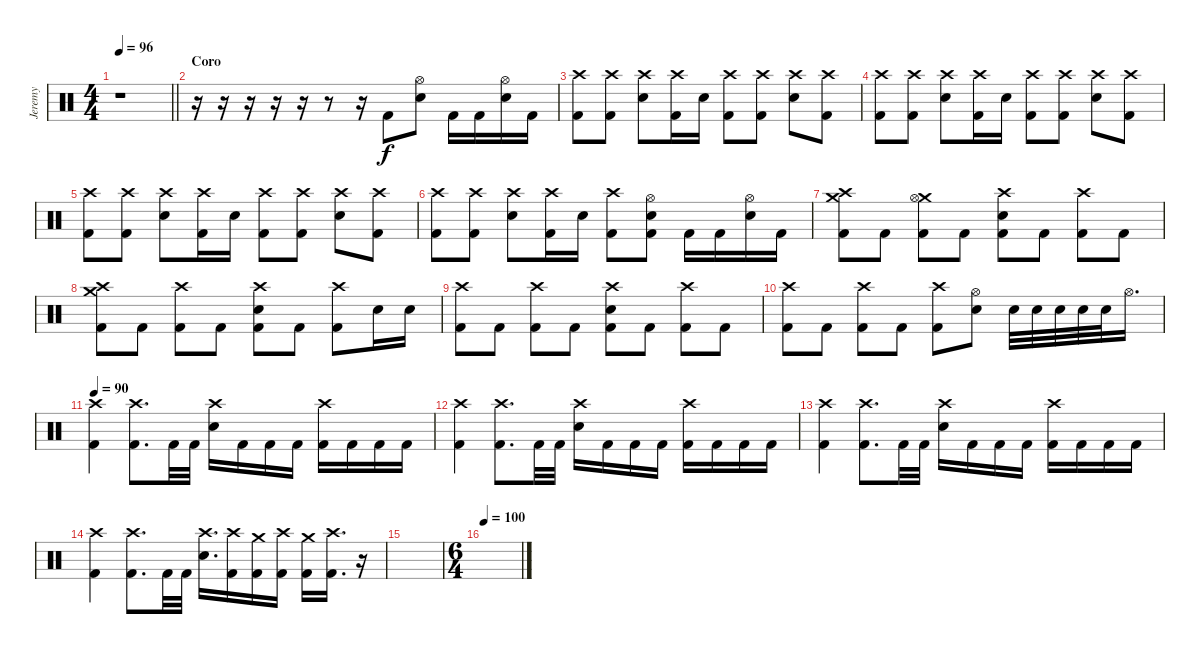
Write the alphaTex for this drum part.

\track ("Jeremy" "Jeremy") {instrument percussion}
\staff {score}
\articulation defaults
\ts (4 4)
\tempo 96
\clef neutral
\barLineRight lightlight
\ks c
r.1{dy f} |
\section ("" "Coro")
r.16 r.16 r.16 r.16 r.16 r.8 r.16 "Kick (hit) 2".8 ("Hi-Hat (open)" "Snare (hit) 2").8 "Kick (hit) 2".16 "Kick (hit) 2".16 ("Hi-Hat (open)" "Snare (hit) 2").16 "Kick (hit) 2".16 |
("Crash high (hit)" "Kick (hit) 2").8 ("Crash high (hit)" "Kick (hit) 2").8 ("Crash high (hit)" "Snare (hit) 2").8 ("Crash high (hit)" "Kick (hit) 2").16 "Snare (hit) 2".16 ("Crash high (hit)" "Kick (hit) 2").8 ("Crash high (hit)" "Kick (hit) 2").8 ("Crash high (hit)" "Snare (hit) 2").8 ("Crash high (hit)" "Kick (hit) 2").8 |
("Crash high (hit)" "Kick (hit) 2").8 ("Crash high (hit)" "Kick (hit) 2").8 ("Crash high (hit)" "Snare (hit) 2").8 ("Crash high (hit)" "Kick (hit) 2").16 "Snare (hit) 2".16 ("Crash high (hit)" "Kick (hit) 2").8 ("Crash high (hit)" "Kick (hit) 2").8 ("Crash high (hit)" "Snare (hit) 2").8 ("Crash high (hit)" "Kick (hit) 2").8 |
("Crash high (hit)" "Kick (hit) 2").8 ("Crash high (hit)" "Kick (hit) 2").8 ("Crash high (hit)" "Snare (hit) 2").8 ("Crash high (hit)" "Kick (hit) 2").16 "Snare (hit) 2".16 ("Crash high (hit)" "Kick (hit) 2").8 ("Crash high (hit)" "Kick (hit) 2").8 ("Crash high (hit)" "Snare (hit) 2").8 ("Crash high (hit)" "Kick (hit) 2").8 |
("Crash high (hit)" "Kick (hit) 2").8 ("Crash high (hit)" "Kick (hit) 2").8 ("Crash high (hit)" "Snare (hit) 2").8 ("Crash high (hit)" "Kick (hit) 2").16 "Snare (hit) 2".16 ("Crash high (hit)" "Kick (hit) 2").8 ("Hi-Hat (open)" "Snare (hit) 2" "Kick (hit) 2").8 "Kick (hit) 2".16 "Kick (hit) 2".16 ("Hi-Hat (open)" "Snare (hit) 2").16 "Kick (hit) 2".16 |
("Crash high (hit)" "Crash medium (hit)" "Kick (hit) 2").8 "Kick (hit) 2".8 ("Crash medium (hit)" "Hi-Hat (open)" "Kick (hit) 2").8 "Kick (hit) 2".8 ("Crash high (hit)" "Snare (hit) 2" "Kick (hit) 2").8 "Kick (hit) 2".8 ("Crash high (hit)" "Kick (hit) 2").8 "Kick (hit) 2".8 |
("Crash high (hit)" "Crash medium (hit)" "Kick (hit) 2").8 "Kick (hit) 2".8 ("Crash high (hit)" "Kick (hit) 2").8 "Kick (hit) 2".8 ("Crash high (hit)" "Snare (hit) 2" "Kick (hit) 2").8 "Kick (hit) 2".8 ("Crash high (hit)" "Kick (hit) 2").8 "Snare (hit) 2".16 "Snare (hit) 2".16 |
("Crash high (hit)" "Kick (hit) 2").8 "Kick (hit) 2".8 ("Crash high (hit)" "Kick (hit) 2").8 "Kick (hit) 2".8 ("Crash high (hit)" "Snare (hit) 2" "Kick (hit) 2").8 "Kick (hit) 2".8 ("Crash high (hit)" "Kick (hit) 2").8 "Kick (hit) 2".8 |
("Crash high (hit)" "Kick (hit) 2").8 "Kick (hit) 2".8 ("Crash high (hit)" "Kick (hit) 2").8 "Kick (hit) 2".8 ("Crash high (hit)" "Kick (hit) 2").8 ("Hi-Hat (open)" "Snare (hit) 2").8 "Snare (hit) 2".32 "Snare (hit) 2".32 "Snare (hit) 2".32 "Snare (hit) 2".32 "Snare (hit) 2".32 "Hi-Hat (open)".16{d} |
\tempo 90
("Crash high (hit)" "Kick (hit) 2").4 ("Crash high (hit)" "Kick (hit) 2").8{d} "Kick (hit) 2".32 "Kick (hit) 2".32 ("Crash high (hit)" "Snare (hit) 2").16 "Kick (hit) 2".16 "Kick (hit) 2".16 "Kick (hit) 2".16 ("Crash high (hit)" "Kick (hit) 2").16 "Kick (hit) 2".16 "Kick (hit) 2".16 "Kick (hit) 2".16 |
("Crash high (hit)" "Kick (hit) 2").4 ("Crash high (hit)" "Kick (hit) 2").8{d} "Kick (hit) 2".32 "Kick (hit) 2".32 ("Crash high (hit)" "Snare (hit) 2").16 "Kick (hit) 2".16 "Kick (hit) 2".16 "Kick (hit) 2".16 ("Crash high (hit)" "Kick (hit) 2").16 "Kick (hit) 2".16 "Kick (hit) 2".16 "Kick (hit) 2".16 |
("Crash high (hit)" "Kick (hit) 2").4 ("Crash high (hit)" "Kick (hit) 2").8{d} "Kick (hit) 2".32 "Kick (hit) 2".32 ("Crash high (hit)" "Snare (hit) 2").16 "Kick (hit) 2".16 "Kick (hit) 2".16 "Kick (hit) 2".16 ("Crash high (hit)" "Kick (hit) 2").16 "Kick (hit) 2".16 "Kick (hit) 2".16 "Kick (hit) 2".16 |
("Crash high (hit)" "Kick (hit) 2").4 ("Crash high (hit)" "Kick (hit) 2").8{d} "Kick (hit) 2".32 "Kick (hit) 2".32 ("Crash high (hit)" "Snare (hit) 2").16{d} ("Crash high (hit)" "Kick (hit) 2").16 ("Crash medium (hit)" "Kick (hit) 2").16 ("Crash high (hit)" "Kick (hit) 2").16 ("Crash medium (hit)" "Kick (hit) 2").16 ("Crash high (hit)" "Kick (hit) 2").16{d} r.16 |
|
\ts (6 4)
\tempo 100
